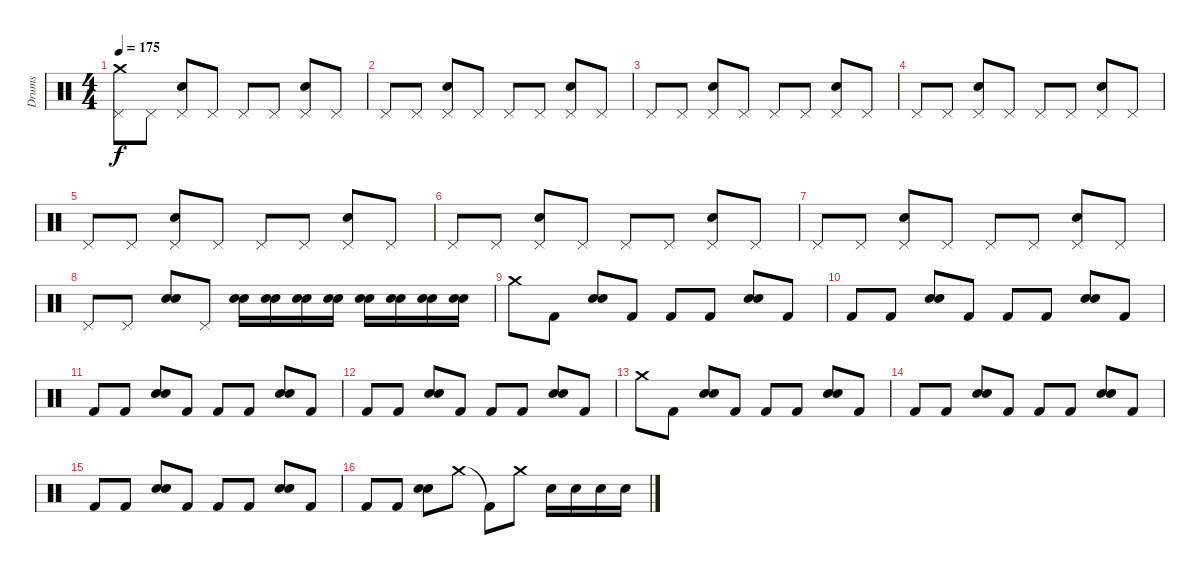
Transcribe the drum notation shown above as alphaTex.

\track ("Drums" "Drums") {instrument percussion}
\staff {score}
\articulation defaults
\ts (4 4)
\tempo 175
\clef neutral
\ks c
("Pedal Hi-Hat (hit)" "Crash medium (hit)").8{dy f} "Pedal Hi-Hat (hit)".8 ("Pedal Hi-Hat (hit)" "Snare (hit) 2").8 "Pedal Hi-Hat (hit)".8 "Pedal Hi-Hat (hit)".8 "Pedal Hi-Hat (hit)".8 ("Pedal Hi-Hat (hit)" "Snare (hit) 2").8 "Pedal Hi-Hat (hit)".8 |
"Pedal Hi-Hat (hit)".8 "Pedal Hi-Hat (hit)".8 ("Pedal Hi-Hat (hit)" "Snare (hit) 2").8 "Pedal Hi-Hat (hit)".8 "Pedal Hi-Hat (hit)".8 "Pedal Hi-Hat (hit)".8 ("Pedal Hi-Hat (hit)" "Snare (hit) 2").8 "Pedal Hi-Hat (hit)".8 |
"Pedal Hi-Hat (hit)".8 "Pedal Hi-Hat (hit)".8 ("Pedal Hi-Hat (hit)" "Snare (hit) 2").8 "Pedal Hi-Hat (hit)".8 "Pedal Hi-Hat (hit)".8 "Pedal Hi-Hat (hit)".8 ("Pedal Hi-Hat (hit)" "Snare (hit) 2").8 "Pedal Hi-Hat (hit)".8 |
"Pedal Hi-Hat (hit)".8 "Pedal Hi-Hat (hit)".8 ("Pedal Hi-Hat (hit)" "Snare (hit) 2").8 "Pedal Hi-Hat (hit)".8 "Pedal Hi-Hat (hit)".8 "Pedal Hi-Hat (hit)".8 ("Pedal Hi-Hat (hit)" "Snare (hit) 2").8 "Pedal Hi-Hat (hit)".8 |
"Pedal Hi-Hat (hit)".8 "Pedal Hi-Hat (hit)".8 ("Pedal Hi-Hat (hit)" "Snare (hit) 2").8 "Pedal Hi-Hat (hit)".8 "Pedal Hi-Hat (hit)".8 "Pedal Hi-Hat (hit)".8 ("Pedal Hi-Hat (hit)" "Snare (hit) 2").8 "Pedal Hi-Hat (hit)".8 |
"Pedal Hi-Hat (hit)".8 "Pedal Hi-Hat (hit)".8 ("Pedal Hi-Hat (hit)" "Snare (hit) 2").8 "Pedal Hi-Hat (hit)".8 "Pedal Hi-Hat (hit)".8 "Pedal Hi-Hat (hit)".8 ("Pedal Hi-Hat (hit)" "Snare (hit) 2").8 "Pedal Hi-Hat (hit)".8 |
"Pedal Hi-Hat (hit)".8 "Pedal Hi-Hat (hit)".8 ("Pedal Hi-Hat (hit)" "Snare (hit) 2").8 "Pedal Hi-Hat (hit)".8 "Pedal Hi-Hat (hit)".8 "Pedal Hi-Hat (hit)".8 ("Pedal Hi-Hat (hit)" "Snare (hit) 2").8 "Pedal Hi-Hat (hit)".8 |
"Pedal Hi-Hat (hit)".8{volume 4} "Pedal Hi-Hat (hit)".8 ("Snare (hit) 2" "Snare (hit) 2").8{volume 13} "Pedal Hi-Hat (hit)".8 ("Snare (hit) 2" "Snare (hit) 2").16 ("Snare (hit) 2" "Snare (hit) 2").16 ("Snare (hit) 2" "Snare (hit) 2").16 ("Snare (hit) 2" "Snare (hit) 2").16 ("Snare (hit) 2" "Snare (hit) 2").16 ("Snare (hit) 2" "Snare (hit) 2").16 ("Snare (hit) 2" "Snare (hit) 2").16 ("Snare (hit) 2" "Snare (hit) 2").16 |
"Crash medium (hit)".8 "Kick (hit) 2".8 ("Snare (hit) 2" "Snare (hit) 2").8 "Kick (hit) 2".8 "Kick (hit) 2".8 "Kick (hit) 2".8 ("Snare (hit) 2" "Snare (hit) 2").8 "Kick (hit) 2".8 |
"Kick (hit) 2".8 "Kick (hit) 2".8 ("Snare (hit) 2" "Snare (hit) 2").8 "Kick (hit) 2".8 "Kick (hit) 2".8 "Kick (hit) 2".8 ("Snare (hit) 2" "Snare (hit) 2").8 "Kick (hit) 2".8 |
"Kick (hit) 2".8 "Kick (hit) 2".8 ("Snare (hit) 2" "Snare (hit) 2").8 "Kick (hit) 2".8 "Kick (hit) 2".8 "Kick (hit) 2".8 ("Snare (hit) 2" "Snare (hit) 2").8 "Kick (hit) 2".8 |
"Kick (hit) 2".8 "Kick (hit) 2".8 ("Snare (hit) 2" "Snare (hit) 2").8 "Kick (hit) 2".8 "Kick (hit) 2".8 "Kick (hit) 2".8 ("Snare (hit) 2" "Snare (hit) 2").8 "Kick (hit) 2".8 |
"Crash medium (hit)".8 "Kick (hit) 2".8 ("Snare (hit) 2" "Snare (hit) 2").8 "Kick (hit) 2".8 "Kick (hit) 2".8 "Kick (hit) 2".8 ("Snare (hit) 2" "Snare (hit) 2").8 "Kick (hit) 2".8 |
"Kick (hit) 2".8 "Kick (hit) 2".8 ("Snare (hit) 2" "Snare (hit) 2").8 "Kick (hit) 2".8 "Kick (hit) 2".8 "Kick (hit) 2".8 ("Snare (hit) 2" "Snare (hit) 2").8 "Kick (hit) 2".8 |
"Kick (hit) 2".8 "Kick (hit) 2".8 ("Snare (hit) 2" "Snare (hit) 2").8 "Kick (hit) 2".8 "Kick (hit) 2".8 "Kick (hit) 2".8 ("Snare (hit) 2" "Snare (hit) 2").8 "Kick (hit) 2".8 |
"Kick (hit) 2".8 "Kick (hit) 2".8 ("Snare (hit) 2" "Snare (hit) 2").8 "Crash medium (hit)".8 "Kick (hit) 2"{t}.8 "Crash medium (hit)".8 "Snare (hit) 2".16 "Snare (hit) 2".16 "Snare (hit) 2".16 "Snare (hit) 2".16
